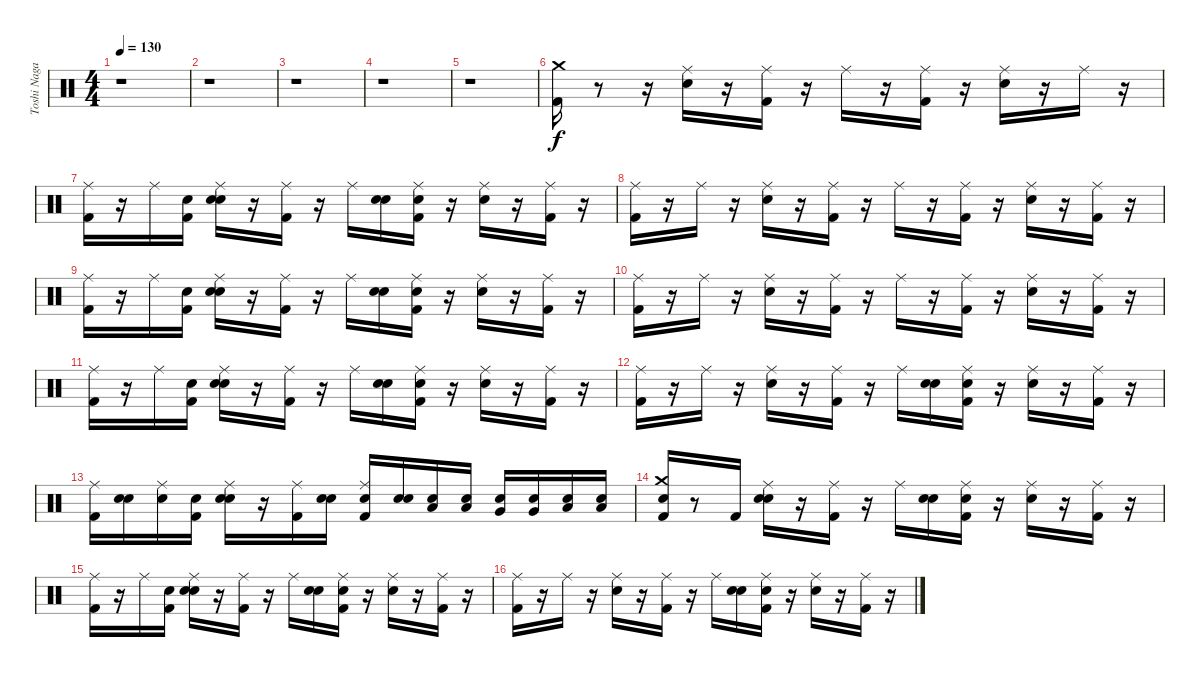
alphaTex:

\track ("Toshi Nagai" "Toshi Naga") {instrument percussion}
\staff {score}
\articulation defaults
\ts (4 4)
\tempo 130
\clef neutral
\ks c
r.1{dy f} |
r.1 |
r.1 |
r.1 |
r.1 |
("Kick (hit) 2" "Crash medium (hit)").16 r.8 r.16 ("Electric Snare (hit)" "Ride (middle)").16 r.16 ("Kick (hit) 2" "Ride (middle)").16 r.16 "Ride (middle)".16 r.16 ("Kick (hit) 2" "Ride (middle)").16 r.16 ("Electric Snare (hit)" "Ride (middle)").16 r.16 "Ride (middle)".16 r.16 |
("Kick (hit) 2" "Ride (middle)").16 r.16 "Ride (middle)".16 ("Snare (hit)" "Kick (hit) 2").16 ("Snare (hit)" "Ride (middle)" "Electric Snare (hit)").16 r.16 ("Ride (middle)" "Kick (hit) 2").16 r.16 "Ride (middle)".16 ("Snare (hit)" "Electric Snare (hit)").16 ("Snare (hit)" "Ride (middle)" "Kick (hit) 2").16 r.16 ("Ride (middle)" "Electric Snare (hit)").16 r.16 ("Ride (middle)" "Kick (hit) 2").16 r.16 |
("Kick (hit) 2" "Ride (middle)").16 r.16 "Ride (middle)".16 r.16 ("Electric Snare (hit)" "Ride (middle)").16 r.16 ("Kick (hit) 2" "Ride (middle)").16 r.16 "Ride (middle)".16 r.16 ("Kick (hit) 2" "Ride (middle)").16 r.16 ("Electric Snare (hit)" "Ride (middle)").16 r.16 ("Kick (hit) 2" "Ride (middle)").16 r.16 |
("Kick (hit) 2" "Ride (middle)").16 r.16 "Ride (middle)".16 ("Snare (hit)" "Kick (hit) 2").16 ("Snare (hit)" "Ride (middle)" "Electric Snare (hit)").16 r.16 ("Ride (middle)" "Kick (hit) 2").16 r.16 "Ride (middle)".16 ("Snare (hit)" "Electric Snare (hit)").16 ("Snare (hit)" "Ride (middle)" "Kick (hit) 2").16 r.16 ("Ride (middle)" "Electric Snare (hit)").16 r.16 ("Ride (middle)" "Kick (hit) 2").16 r.16 |
("Kick (hit) 2" "Ride (middle)").16 r.16 "Ride (middle)".16 r.16 ("Electric Snare (hit)" "Ride (middle)").16 r.16 ("Kick (hit) 2" "Ride (middle)").16 r.16 "Ride (middle)".16 r.16 ("Kick (hit) 2" "Ride (middle)").16 r.16 ("Electric Snare (hit)" "Ride (middle)").16 r.16 ("Kick (hit) 2" "Ride (middle)").16 r.16 |
("Kick (hit) 2" "Ride (middle)").16 r.16 "Ride (middle)".16 ("Snare (hit)" "Kick (hit) 2").16 ("Snare (hit)" "Ride (middle)" "Electric Snare (hit)").16 r.16 ("Ride (middle)" "Kick (hit) 2").16 r.16 "Ride (middle)".16 ("Snare (hit)" "Electric Snare (hit)").16 ("Snare (hit)" "Ride (middle)" "Kick (hit) 2").16 r.16 ("Ride (middle)" "Electric Snare (hit)").16 r.16 ("Ride (middle)" "Kick (hit) 2").16 r.16 |
("Kick (hit) 2" "Ride (middle)").16 r.16 "Ride (middle)".16 r.16 ("Electric Snare (hit)" "Ride (middle)").16 r.16 ("Kick (hit) 2" "Ride (middle)").16 r.16 "Ride (middle)".16 ("Snare (hit)" "Electric Snare (hit)").16 ("Snare (hit)" "Ride (middle)" "Kick (hit) 2").16 r.16 ("Ride (middle)" "Electric Snare (hit)").16 r.16 ("Ride (middle)" "Kick (hit) 2").16 r.16 |
("Ride (middle)" "Kick (hit) 2").16 ("Snare (hit)" "Electric Snare (hit)").16 ("Snare (hit)" "Ride (middle)").16 ("Snare (hit)" "Kick (hit) 2").16 ("Snare (hit)" "Ride (middle)" "Electric Snare (hit)").16 r.16 ("Ride (middle)" "Kick (hit) 2").16 ("Snare (hit)" "Electric Snare (hit)").16 ("Snare (hit)" "Ride (middle)" "Kick (hit) 2").16 ("Snare (hit)" "Electric Snare (hit)").16 ("Snare (hit)" "Low Tom (hit)").16 ("Snare (hit)" "Low Tom (hit)").16 ("Snare (hit)" "Very Low Tom (hit)").16 ("Snare (hit)" "Very Low Tom (hit)").16 ("Snare (hit)" "Low Floor Tom (hit)").16 ("Snare (hit)" "Low Floor Tom (hit)").16 |
("Snare (hit)" "Kick (hit) 2" "Crash medium (hit)").16 r.8 "Kick (hit) 2".16 ("Snare (hit)" "Ride (middle)" "Electric Snare (hit)").16 r.16 ("Ride (middle)" "Kick (hit) 2").16 r.16 "Ride (middle)".16 ("Snare (hit)" "Electric Snare (hit)").16 ("Snare (hit)" "Ride (middle)" "Kick (hit) 2").16 r.16 ("Ride (middle)" "Electric Snare (hit)").16 r.16 ("Ride (middle)" "Kick (hit) 2").16 r.16 |
("Kick (hit) 2" "Ride (middle)").16 r.16 "Ride (middle)".16 ("Snare (hit)" "Kick (hit) 2").16 ("Snare (hit)" "Ride (middle)" "Electric Snare (hit)").16 r.16 ("Ride (middle)" "Kick (hit) 2").16 r.16 "Ride (middle)".16 ("Snare (hit)" "Electric Snare (hit)").16 ("Snare (hit)" "Ride (middle)" "Kick (hit) 2").16 r.16 ("Ride (middle)" "Electric Snare (hit)").16 r.16 ("Ride (middle)" "Kick (hit) 2").16 r.16 |
("Kick (hit) 2" "Ride (middle)").16 r.16 "Ride (middle)".16 r.16 ("Electric Snare (hit)" "Ride (middle)").16 r.16 ("Kick (hit) 2" "Ride (middle)").16 r.16 "Ride (middle)".16 ("Snare (hit)" "Electric Snare (hit)").16 ("Snare (hit)" "Ride (middle)" "Kick (hit) 2").16 r.16 ("Ride (middle)" "Electric Snare (hit)").16 r.16 ("Ride (middle)" "Kick (hit) 2").16 r.16
